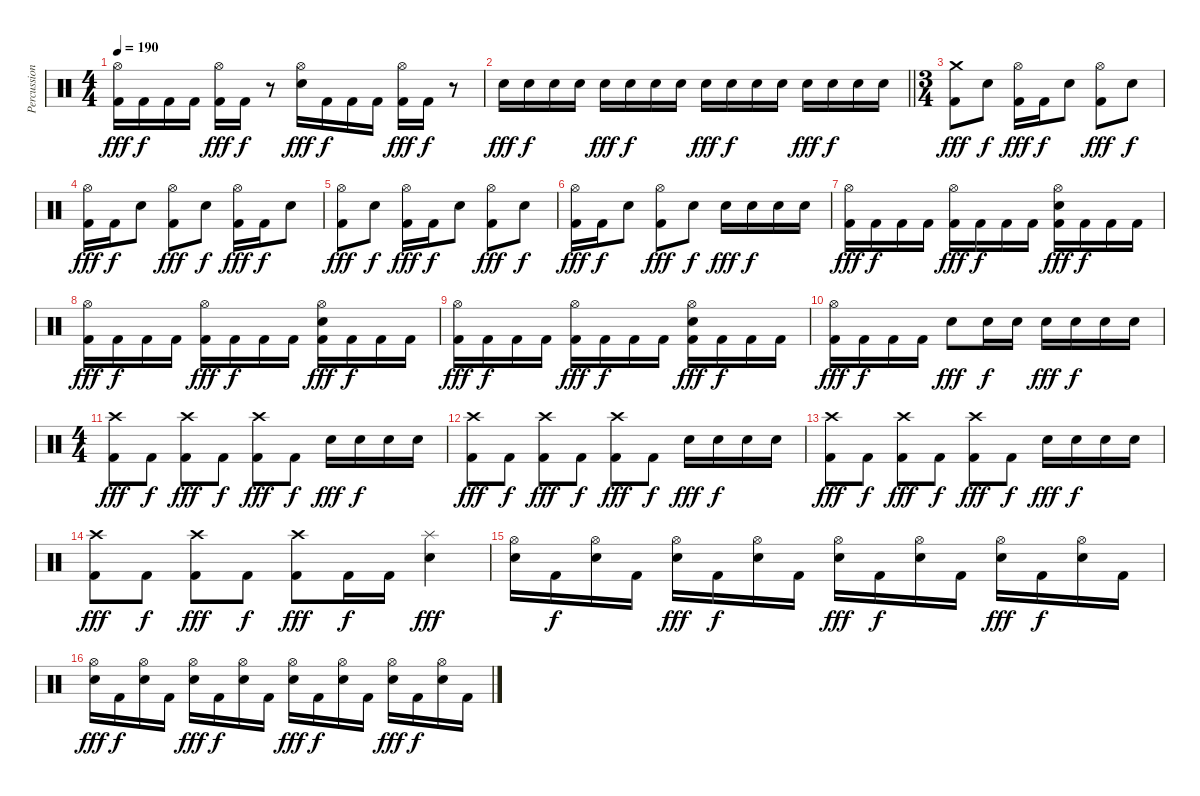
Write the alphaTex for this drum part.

\track ("Percussions" "Percussion") {instrument percussion}
\staff {score}
\articulation defaults
\ts (4 4)
\tempo 190
\clef neutral
\ks c
("Hi-Hat (open)" "Kick (hit) 2").16{dy fff} "Kick (hit) 2".16{dy f} "Kick (hit) 2".16 "Kick (hit) 2".16 ("Hi-Hat (open)" "Kick (hit) 2").16{dy fff} "Kick (hit) 2".16{dy f} r.8 ("Hi-Hat (open)" "Snare (hit) 2").16{dy fff} "Kick (hit) 2".16{dy f} "Kick (hit) 2".16 "Kick (hit) 2".16 ("Hi-Hat (open)" "Kick (hit) 2").16{dy fff} "Kick (hit) 2".16{dy f} r.8 |
\barLineRight lightlight "Snare (hit) 2".16{dy fff} "Snare (hit) 2".16{dy f} "Snare (hit) 2".16 "Snare (hit) 2".16 "Snare (hit) 2".16{dy fff} "Snare (hit) 2".16{dy f} "Snare (hit) 2".16 "Snare (hit) 2".16 "Snare (hit) 2".16{dy fff} "Snare (hit) 2".16{dy f} "Snare (hit) 2".16 "Snare (hit) 2".16 "Snare (hit) 2".16{dy fff} "Snare (hit) 2".16{dy f} "Snare (hit) 2".16 "Snare (hit) 2".16
|
\ts (3 4)
("Crash medium (hit)" "Kick (hit) 2").8{dy fff} "Snare (hit) 2".8{dy f} ("Hi-Hat (open)" "Kick (hit) 2").16{dy fff} "Kick (hit) 2".16{dy f} "Snare (hit) 2".8 ("Hi-Hat (open)" "Kick (hit) 2").8{dy fff} "Snare (hit) 2".8{dy f} |
("Hi-Hat (open)" "Kick (hit) 2").16{dy fff} "Kick (hit) 2".16{dy f} "Snare (hit) 2".8 ("Hi-Hat (open)" "Kick (hit) 2").8{dy fff} "Snare (hit) 2".8{dy f} ("Hi-Hat (open)" "Kick (hit) 2").16{dy fff} "Kick (hit) 2".16{dy f} "Snare (hit) 2".8 |
("Hi-Hat (open)" "Kick (hit) 2").8{dy fff} "Snare (hit) 2".8{dy f} ("Hi-Hat (open)" "Kick (hit) 2").16{dy fff} "Kick (hit) 2".16{dy f} "Snare (hit) 2".8 ("Hi-Hat (open)" "Kick (hit) 2").8{dy fff} "Snare (hit) 2".8{dy f} |
("Hi-Hat (open)" "Kick (hit) 2").16{dy fff} "Kick (hit) 2".16{dy f} "Snare (hit) 2".8 ("Hi-Hat (open)" "Kick (hit) 2").8{dy fff} "Snare (hit) 2".8{dy f} "Snare (hit) 2".16{dy fff} "Snare (hit) 2".16{dy f} "Snare (hit) 2".16 "Snare (hit) 2".16 |
("Hi-Hat (open)" "Kick (hit) 2").16{dy fff} "Kick (hit) 2".16{dy f} "Kick (hit) 2".16 "Kick (hit) 2".16 ("Hi-Hat (open)" "Kick (hit) 2").16{dy fff} "Kick (hit) 2".16{dy f} "Kick (hit) 2".16 "Kick (hit) 2".16 ("Hi-Hat (open)" "Snare (hit) 2" "Kick (hit) 2").16{dy fff} "Kick (hit) 2".16{dy f} "Kick (hit) 2".16 "Kick (hit) 2".16 |
("Hi-Hat (open)" "Kick (hit) 2").16{dy fff} "Kick (hit) 2".16{dy f} "Kick (hit) 2".16 "Kick (hit) 2".16 ("Hi-Hat (open)" "Kick (hit) 2").16{dy fff} "Kick (hit) 2".16{dy f} "Kick (hit) 2".16 "Kick (hit) 2".16 ("Hi-Hat (open)" "Snare (hit) 2" "Kick (hit) 2").16{dy fff} "Kick (hit) 2".16{dy f} "Kick (hit) 2".16 "Kick (hit) 2".16 |
("Hi-Hat (open)" "Kick (hit) 2").16{dy fff} "Kick (hit) 2".16{dy f} "Kick (hit) 2".16 "Kick (hit) 2".16 ("Hi-Hat (open)" "Kick (hit) 2").16{dy fff} "Kick (hit) 2".16{dy f} "Kick (hit) 2".16 "Kick (hit) 2".16 ("Hi-Hat (open)" "Snare (hit) 2" "Kick (hit) 2").16{dy fff} "Kick (hit) 2".16{dy f} "Kick (hit) 2".16 "Kick (hit) 2".16 |
("Hi-Hat (open)" "Kick (hit) 2").16{dy fff} "Kick (hit) 2".16{dy f} "Kick (hit) 2".16 "Kick (hit) 2".16 "Snare (hit) 2".8{dy fff} "Snare (hit) 2".16{dy f} "Snare (hit) 2".16 "Snare (hit) 2".16{dy fff} "Snare (hit) 2".16{dy f} "Snare (hit) 2".16 "Snare (hit) 2".16 |
\ts (4 4)
("Crash high (hit)" "Kick (hit) 2").8{dy fff} "Kick (hit) 2".8{dy f} ("Crash high (hit)" "Kick (hit) 2").8{dy fff} "Kick (hit) 2".8{dy f} ("Crash high (hit)" "Kick (hit) 2").8{dy fff} "Kick (hit) 2".8{dy f} "Snare (hit) 2".16{dy fff} "Snare (hit) 2".16{dy f} "Snare (hit) 2".16 "Snare (hit) 2".16 |
("Crash high (hit)" "Kick (hit) 2").8{dy fff} "Kick (hit) 2".8{dy f} ("Crash high (hit)" "Kick (hit) 2").8{dy fff} "Kick (hit) 2".8{dy f} ("Crash high (hit)" "Kick (hit) 2").8{dy fff} "Kick (hit) 2".8{dy f} "Snare (hit) 2".16{dy fff} "Snare (hit) 2".16{dy f} "Snare (hit) 2".16 "Snare (hit) 2".16 |
("Crash high (hit)" "Kick (hit) 2").8{dy fff} "Kick (hit) 2".8{dy f} ("Crash high (hit)" "Kick (hit) 2").8{dy fff} "Kick (hit) 2".8{dy f} ("Crash high (hit)" "Kick (hit) 2").8{dy fff} "Kick (hit) 2".8{dy f} "Snare (hit) 2".16{dy fff} "Snare (hit) 2".16{dy f} "Snare (hit) 2".16 "Snare (hit) 2".16 |
("Crash high (hit)" "Kick (hit) 2").8{dy fff} "Kick (hit) 2".8{dy f} ("Crash high (hit)" "Kick (hit) 2").8{dy fff} "Kick (hit) 2".8{dy f} ("Crash high (hit)" "Kick (hit) 2").8{dy fff} "Kick (hit) 2".16{dy f} "Kick (hit) 2".16 ("Splash (hit)" "Snare (hit) 2").4{dy fff} |
("Hi-Hat (open)" "Snare (hit) 2").16 "Kick (hit) 2".16{dy f} ("Hi-Hat (open)" "Snare (hit) 2").16 "Kick (hit) 2".16 ("Hi-Hat (open)" "Snare (hit) 2").16{dy fff} "Kick (hit) 2".16{dy f} ("Hi-Hat (open)" "Snare (hit) 2").16 "Kick (hit) 2".16 ("Hi-Hat (open)" "Snare (hit) 2").16{dy fff} "Kick (hit) 2".16{dy f} ("Hi-Hat (open)" "Snare (hit) 2").16 "Kick (hit) 2".16 ("Hi-Hat (open)" "Snare (hit) 2").16{dy fff} "Kick (hit) 2".16{dy f} ("Hi-Hat (open)" "Snare (hit) 2").16 "Kick (hit) 2".16 |
("Hi-Hat (open)" "Snare (hit) 2").16{dy fff} "Kick (hit) 2".16{dy f} ("Hi-Hat (open)" "Snare (hit) 2").16 "Kick (hit) 2".16 ("Hi-Hat (open)" "Snare (hit) 2").16{dy fff} "Kick (hit) 2".16{dy f} ("Hi-Hat (open)" "Snare (hit) 2").16 "Kick (hit) 2".16 ("Hi-Hat (open)" "Snare (hit) 2").16{dy fff} "Kick (hit) 2".16{dy f} ("Hi-Hat (open)" "Snare (hit) 2").16 "Kick (hit) 2".16 ("Hi-Hat (open)" "Snare (hit) 2").16{dy fff} "Kick (hit) 2".16{dy f} ("Hi-Hat (open)" "Snare (hit) 2").16 "Kick (hit) 2".16
